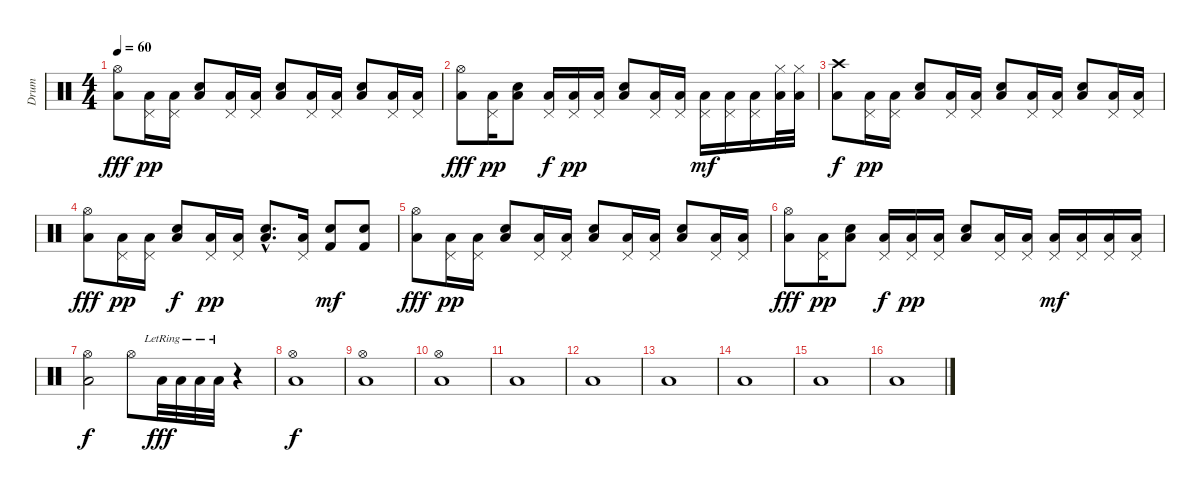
\track ("Drum" "Drum") {instrument percussion}
\staff {score}
\articulation defaults
\ts (4 4)
\tempo 60
\clef neutral
\ks c
("Hi-Hat (open)" "Low Tom (hit)").8{dy fff} ("Pedal Hi-Hat (hit)" "Low Tom (hit)").16{dy pp} ("Pedal Hi-Hat (hit)" "Low Tom (hit)").16 ("Electric Snare (hit)" "Low Tom (hit)").8 ("Pedal Hi-Hat (hit)" "Low Tom (hit)").16 ("Pedal Hi-Hat (hit)" "Low Tom (hit)").16 ("Electric Snare (hit)" "Low Tom (hit)").8 ("Pedal Hi-Hat (hit)" "Low Tom (hit)").16 ("Pedal Hi-Hat (hit)" "Low Tom (hit)").16 ("Electric Snare (hit)" "Low Tom (hit)").8 ("Pedal Hi-Hat (hit)" "Low Tom (hit)").16 ("Pedal Hi-Hat (hit)" "Low Tom (hit)").16 |
("Hi-Hat (open)" "Low Tom (hit)").8{dy fff} ("Pedal Hi-Hat (hit)" "Low Tom (hit)").16{dy pp} ("Electric Snare (hit)" "Low Tom (hit)").8 ("Pedal Hi-Hat (hit)" "Low Tom (hit)").16{dy f} ("Pedal Hi-Hat (hit)" "Low Tom (hit)").16{dy pp} ("Pedal Hi-Hat (hit)" "Low Tom (hit)").16 ("Electric Snare (hit)" "Low Tom (hit)").8 ("Pedal Hi-Hat (hit)" "Low Tom (hit)").16 ("Pedal Hi-Hat (hit)" "Low Tom (hit)").16 ("Pedal Hi-Hat (hit)" "Low Tom (hit)").16{dy mf} ("Pedal Hi-Hat (hit)" "Low Tom (hit)").16 ("Pedal Hi-Hat (hit)" "Low Tom (hit)").16 ("Hi-Hat (closed)" "Low Tom (hit)").32 ("Hi-Hat (closed)" "Low Tom (hit)").32 |
("Crash high (hit)" "Low Tom (hit)").8{dy f} ("Pedal Hi-Hat (hit)" "Low Tom (hit)").16{dy pp} ("Pedal Hi-Hat (hit)" "Low Tom (hit)").16 ("Electric Snare (hit)" "Low Tom (hit)").8 ("Pedal Hi-Hat (hit)" "Low Tom (hit)").16 ("Pedal Hi-Hat (hit)" "Low Tom (hit)").16 ("Electric Snare (hit)" "Low Tom (hit)").8 ("Pedal Hi-Hat (hit)" "Low Tom (hit)").16 ("Pedal Hi-Hat (hit)" "Low Tom (hit)").16 ("Electric Snare (hit)" "Low Tom (hit)").8 ("Pedal Hi-Hat (hit)" "Low Tom (hit)").16 ("Pedal Hi-Hat (hit)" "Low Tom (hit)").16 |
("Hi-Hat (open)" "Low Tom (hit)").8{dy fff} ("Pedal Hi-Hat (hit)" "Low Tom (hit)").16{dy pp} ("Pedal Hi-Hat (hit)" "Low Tom (hit)").16 ("Electric Snare (hit)" "Low Tom (hit)").8{dy f} ("Pedal Hi-Hat (hit)" "Low Tom (hit)").16{dy pp} ("Pedal Hi-Hat (hit)" "Low Tom (hit)").16 ("Electric Snare (hit)"{hac} "Low Tom (hit)"{hac}).8{d} ("Pedal Hi-Hat (hit)" "Low Tom (hit)").16 ("Electric Snare (hit)" "Kick (hit) 2").8{dy mf} ("Electric Snare (hit)" "Kick (hit) 2").8 |
("Hi-Hat (open)" "Low Tom (hit)").8{dy fff} ("Pedal Hi-Hat (hit)" "Low Tom (hit)").16{dy pp} ("Pedal Hi-Hat (hit)" "Low Tom (hit)").16 ("Electric Snare (hit)" "Low Tom (hit)").8 ("Pedal Hi-Hat (hit)" "Low Tom (hit)").16 ("Pedal Hi-Hat (hit)" "Low Tom (hit)").16 ("Electric Snare (hit)" "Low Tom (hit)").8 ("Pedal Hi-Hat (hit)" "Low Tom (hit)").16 ("Pedal Hi-Hat (hit)" "Low Tom (hit)").16 ("Electric Snare (hit)" "Low Tom (hit)").8 ("Pedal Hi-Hat (hit)" "Low Tom (hit)").16 ("Pedal Hi-Hat (hit)" "Low Tom (hit)").16 |
("Hi-Hat (open)" "Low Tom (hit)").8{dy fff} ("Pedal Hi-Hat (hit)" "Low Tom (hit)").16{dy pp} ("Electric Snare (hit)" "Low Tom (hit)").8 ("Pedal Hi-Hat (hit)" "Low Tom (hit)").16{dy f} ("Pedal Hi-Hat (hit)" "Low Tom (hit)").16{dy pp} ("Pedal Hi-Hat (hit)" "Low Tom (hit)").16 ("Electric Snare (hit)" "Low Tom (hit)").8 ("Pedal Hi-Hat (hit)" "Low Tom (hit)").16 ("Pedal Hi-Hat (hit)" "Low Tom (hit)").16 ("Pedal Hi-Hat (hit)" "Low Tom (hit)").16{dy mf} ("Pedal Hi-Hat (hit)" "Low Tom (hit)").16 ("Pedal Hi-Hat (hit)" "Low Tom (hit)").16 ("Pedal Hi-Hat (hit)" "Low Tom (hit)").16 |
("Hi-Hat (open)" "Low Tom (hit)").2{dy f} "Hi-Hat (open)".8 "Low Tom (hit)"{lr}.32{dy fff} "Low Tom (hit)"{lr}.32 "Low Tom (hit)"{lr}.32 "Low Tom (hit)"{lr}.32 r.4 |
("Hi-Hat (open)" "Low Tom (hit)").1{dy f} |
("Hi-Hat (open)" "Low Tom (hit)").1 |
("Hi-Hat (open)" "Low Tom (hit)").1 |
"Low Tom (hit)".1 |
"Low Tom (hit)".1 |
"Low Tom (hit)".1 |
"Low Tom (hit)".1 |
"Low Tom (hit)".1 |
"Low Tom (hit)".1
